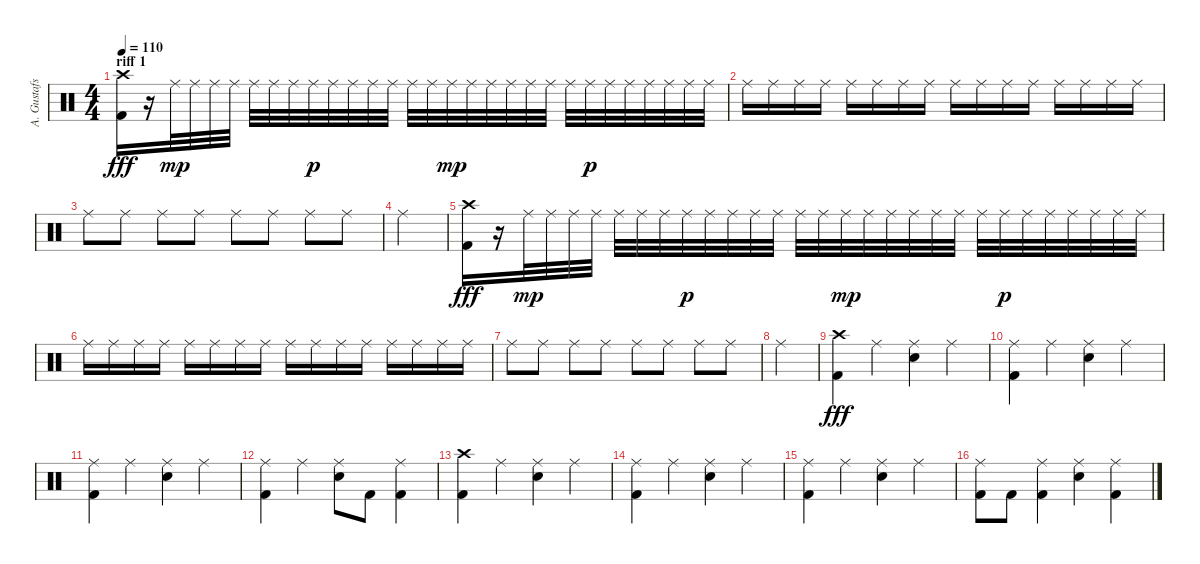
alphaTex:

\track ("A. Gustafsson" "A. Gustafs") {instrument percussion}
\staff {score}
\articulation defaults
\ts (4 4)
\section ("" "riff 1")
\tempo 110
\clef neutral
\ks c
("Crash high (hit)" "Kick (hit) 2").16{dy fff} r.16 "Ride (middle)".32{dy mp} "Ride (middle)".32 "Ride (middle)".32 "Ride (middle)".32 "Ride (middle)".32 "Ride (middle)".32 "Ride (middle)".32 "Ride (middle)".32{dy p} "Ride (middle)".32 "Ride (middle)".32 "Ride (middle)".32 "Ride (middle)".32 "Ride (middle)".32 "Ride (middle)".32 "Ride (middle)".32{dy mp} "Ride (middle)".32 "Ride (middle)".32 "Ride (middle)".32 "Ride (middle)".32 "Ride (middle)".32 "Ride (middle)".32 "Ride (middle)".32{dy p} "Ride (middle)".32 "Ride (middle)".32 "Ride (middle)".32 "Ride (middle)".32 "Ride (middle)".32 "Ride (middle)".32 |
"Ride (middle)".16 "Ride (middle)".16 "Ride (middle)".16 "Ride (middle)".16 "Ride (middle)".16 "Ride (middle)".16 "Ride (middle)".16 "Ride (middle)".16 "Ride (middle)".16 "Ride (middle)".16 "Ride (middle)".16 "Ride (middle)".16 "Ride (middle)".16 "Ride (middle)".16 "Ride (middle)".16 "Ride (middle)".16 |
"Ride (middle)".8 "Ride (middle)".8 "Ride (middle)".8 "Ride (middle)".8 "Ride (middle)".8 "Ride (middle)".8 "Ride (middle)".8 "Ride (middle)".8 |
"Ride (middle)".4 |
("Crash high (hit)" "Kick (hit) 2").16{dy fff} r.16 "Ride (middle)".32{dy mp} "Ride (middle)".32 "Ride (middle)".32 "Ride (middle)".32 "Ride (middle)".32 "Ride (middle)".32 "Ride (middle)".32 "Ride (middle)".32{dy p} "Ride (middle)".32 "Ride (middle)".32 "Ride (middle)".32 "Ride (middle)".32 "Ride (middle)".32 "Ride (middle)".32 "Ride (middle)".32{dy mp} "Ride (middle)".32 "Ride (middle)".32 "Ride (middle)".32 "Ride (middle)".32 "Ride (middle)".32 "Ride (middle)".32 "Ride (middle)".32{dy p} "Ride (middle)".32 "Ride (middle)".32 "Ride (middle)".32 "Ride (middle)".32 "Ride (middle)".32 "Ride (middle)".32 |
"Ride (middle)".16 "Ride (middle)".16 "Ride (middle)".16 "Ride (middle)".16 "Ride (middle)".16 "Ride (middle)".16 "Ride (middle)".16 "Ride (middle)".16 "Ride (middle)".16 "Ride (middle)".16 "Ride (middle)".16 "Ride (middle)".16 "Ride (middle)".16 "Ride (middle)".16 "Ride (middle)".16 "Ride (middle)".16 |
"Ride (middle)".8 "Ride (middle)".8 "Ride (middle)".8 "Ride (middle)".8 "Ride (middle)".8 "Ride (middle)".8 "Ride (middle)".8 "Ride (middle)".8 |
"Ride (middle)".4 |
("Crash high (hit)" "Kick (hit) 2").4{dy fff} "Ride (middle)".4 ("Ride (middle)" "Electric Snare (hit)").4 "Ride (middle)".4 |
("Ride (middle)" "Kick (hit) 2").4 "Ride (middle)".4 ("Ride (middle)" "Electric Snare (hit)").4 "Ride (middle)".4 |
("Ride (middle)" "Kick (hit) 2").4 "Ride (middle)".4 ("Ride (middle)" "Electric Snare (hit)").4 "Ride (middle)".4 |
("Ride (middle)" "Kick (hit) 2").4 "Ride (middle)".4 ("Ride (middle)" "Electric Snare (hit)").8 "Kick (hit) 2".8 ("Ride (middle)" "Kick (hit) 2").4 |
("Crash high (hit)" "Kick (hit) 2").4 "Ride (middle)".4 ("Ride (middle)" "Electric Snare (hit)").4 "Ride (middle)".4 |
("Ride (middle)" "Kick (hit) 2").4 "Ride (middle)".4 ("Ride (middle)" "Electric Snare (hit)").4 "Ride (middle)".4 |
("Ride (middle)" "Kick (hit) 2").4 "Ride (middle)".4 ("Ride (middle)" "Electric Snare (hit)").4 "Ride (middle)".4 |
("Ride (middle)" "Kick (hit) 2").8 "Kick (hit) 2".8 ("Ride (middle)" "Kick (hit) 2").4 ("Ride (middle)" "Electric Snare (hit)").4 ("Ride (middle)" "Kick (hit) 2").4
